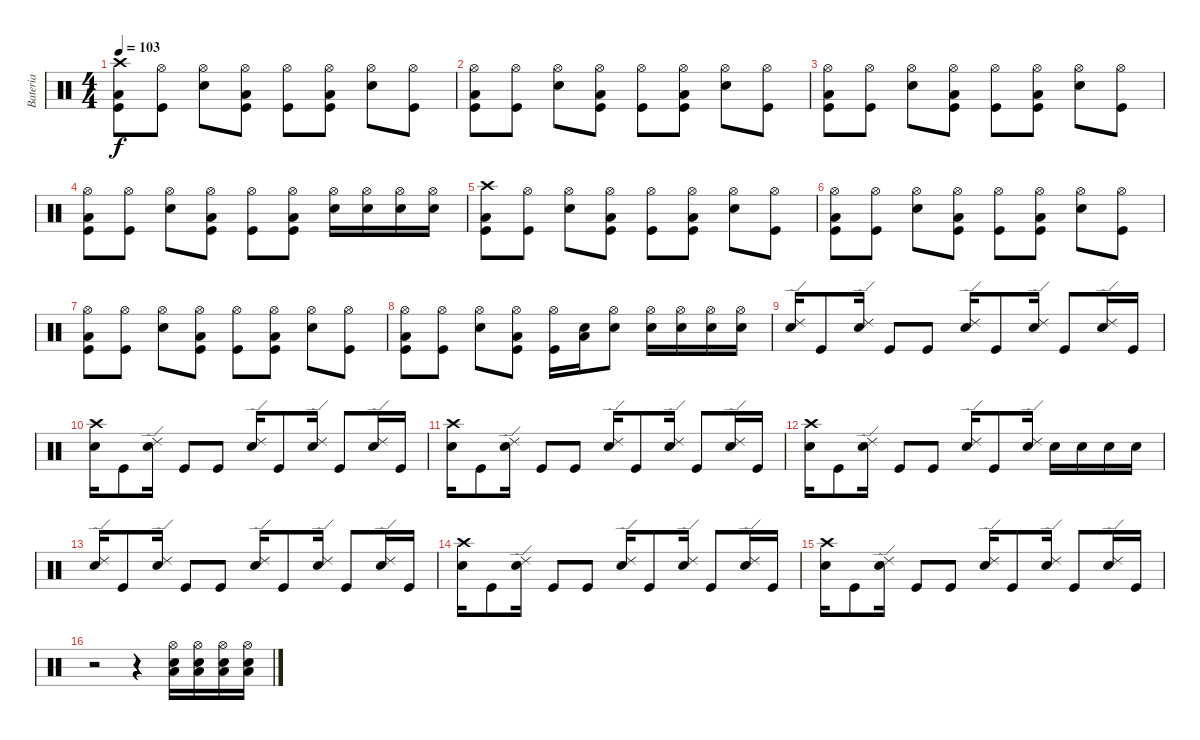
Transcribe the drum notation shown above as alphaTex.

\track ("Bateria" "Bateria") {instrument percussion}
\staff {score}
\articulation defaults
\ts (4 4)
\tempo 103
\clef neutral
\ks c
("Crash high (hit)" "Kick (hit)" "Low Tom (hit)").8{dy f} ("Hi-Hat (open)" "Kick (hit)").8 ("Hi-Hat (open)" "Snare (hit) 2").8 ("Hi-Hat (open)" "Kick (hit)" "Low Tom (hit)").8 ("Hi-Hat (open)" "Kick (hit)").8 ("Hi-Hat (open)" "Kick (hit)" "Low Tom (hit)").8 ("Hi-Hat (open)" "Snare (hit) 2").8 ("Hi-Hat (open)" "Kick (hit)").8 |
("Hi-Hat (open)" "Kick (hit)" "Low Tom (hit)").8 ("Hi-Hat (open)" "Kick (hit)").8 ("Hi-Hat (open)" "Snare (hit) 2").8 ("Hi-Hat (open)" "Kick (hit)" "Low Tom (hit)").8 ("Hi-Hat (open)" "Kick (hit)").8 ("Hi-Hat (open)" "Kick (hit)" "Low Tom (hit)").8 ("Hi-Hat (open)" "Snare (hit) 2").8 ("Hi-Hat (open)" "Kick (hit)").8 |
("Hi-Hat (open)" "Kick (hit)" "Low Tom (hit)").8 ("Hi-Hat (open)" "Kick (hit)").8 ("Hi-Hat (open)" "Snare (hit) 2").8 ("Hi-Hat (open)" "Kick (hit)" "Low Tom (hit)").8 ("Hi-Hat (open)" "Kick (hit)").8 ("Hi-Hat (open)" "Kick (hit)" "Low Tom (hit)").8 ("Hi-Hat (open)" "Snare (hit) 2").8 ("Hi-Hat (open)" "Kick (hit)").8 |
("Hi-Hat (open)" "Kick (hit)" "Low Tom (hit)").8 ("Hi-Hat (open)" "Kick (hit)").8 ("Hi-Hat (open)" "Snare (hit) 2").8 ("Hi-Hat (open)" "Kick (hit)" "Low Tom (hit)").8 ("Hi-Hat (open)" "Kick (hit)").8 ("Hi-Hat (open)" "Kick (hit)" "Low Tom (hit)").8 ("Hi-Hat (open)" "Snare (hit) 2").16 ("Hi-Hat (open)" "Snare (hit) 2").16 ("Hi-Hat (open)" "Snare (hit) 2").16 ("Hi-Hat (open)" "Snare (hit) 2").16 |
("Crash high (hit)" "Kick (hit)" "Low Tom (hit)").8 ("Hi-Hat (open)" "Kick (hit)").8 ("Hi-Hat (open)" "Snare (hit) 2").8 ("Hi-Hat (open)" "Kick (hit)" "Low Tom (hit)").8 ("Hi-Hat (open)" "Kick (hit)").8 ("Hi-Hat (open)" "Kick (hit)" "Low Tom (hit)").8 ("Hi-Hat (open)" "Snare (hit) 2").8 ("Hi-Hat (open)" "Kick (hit)").8 |
("Hi-Hat (open)" "Kick (hit)" "Low Tom (hit)").8 ("Hi-Hat (open)" "Kick (hit)").8 ("Hi-Hat (open)" "Snare (hit) 2").8 ("Hi-Hat (open)" "Kick (hit)" "Low Tom (hit)").8 ("Hi-Hat (open)" "Kick (hit)").8 ("Hi-Hat (open)" "Kick (hit)" "Low Tom (hit)").8 ("Hi-Hat (open)" "Snare (hit) 2").8 ("Hi-Hat (open)" "Kick (hit)").8 |
("Hi-Hat (open)" "Kick (hit)" "Low Tom (hit)").8 ("Hi-Hat (open)" "Kick (hit)").8 ("Hi-Hat (open)" "Snare (hit) 2").8 ("Hi-Hat (open)" "Kick (hit)" "Low Tom (hit)").8 ("Hi-Hat (open)" "Kick (hit)").8 ("Hi-Hat (open)" "Kick (hit)" "Low Tom (hit)").8 ("Hi-Hat (open)" "Snare (hit) 2").8 ("Hi-Hat (open)" "Kick (hit)").8 |
("Hi-Hat (open)" "Kick (hit)" "Low Tom (hit)").8 ("Hi-Hat (open)" "Kick (hit)").8 ("Hi-Hat (open)" "Snare (hit) 2").8 ("Hi-Hat (open)" "Kick (hit)" "Low Tom (hit)").8 ("Hi-Hat (open)" "Kick (hit)").16 ("Snare (hit) 2" "Low Tom (hit)").16 ("Hi-Hat (open)" "Snare (hit) 2").8 ("Hi-Hat (open)" "Snare (hit) 2").16 ("Hi-Hat (open)" "Snare (hit) 2").16 ("Hi-Hat (open)" "Snare (hit) 2").16 ("Hi-Hat (open)" "Snare (hit) 2").16 |
("Ride (edge) 2" "Snare (hit) 2").16 "Kick (hit)".8 ("Ride (edge) 2" "Snare (hit) 2").16 "Kick (hit)".8 "Kick (hit)".8 ("Ride (edge) 2" "Snare (hit) 2").16 "Kick (hit)".8 ("Ride (edge) 2" "Snare (hit) 2").16 "Kick (hit)".8 ("Ride (edge) 2" "Snare (hit) 2").16 "Kick (hit)".16 |
("Crash high (hit)" "Snare (hit) 2").16 "Kick (hit)".8 ("Ride (edge) 2" "Snare (hit) 2").16 "Kick (hit)".8 "Kick (hit)".8 ("Ride (edge) 2" "Snare (hit) 2").16 "Kick (hit)".8 ("Ride (edge) 2" "Snare (hit) 2").16 "Kick (hit)".8 ("Ride (edge) 2" "Snare (hit) 2").16 "Kick (hit)".16 |
("Crash high (hit)" "Snare (hit) 2").16 "Kick (hit)".8 ("Ride (edge) 2" "Snare (hit) 2").16 "Kick (hit)".8 "Kick (hit)".8 ("Ride (edge) 2" "Snare (hit) 2").16 "Kick (hit)".8 ("Ride (edge) 2" "Snare (hit) 2").16 "Kick (hit)".8 ("Ride (edge) 2" "Snare (hit) 2").16 "Kick (hit)".16 |
("Crash high (hit)" "Snare (hit) 2").16 "Kick (hit)".8 ("Ride (edge) 2" "Snare (hit) 2").16 "Kick (hit)".8 "Kick (hit)".8 ("Ride (edge) 2" "Snare (hit) 2").16 "Kick (hit)".8 ("Ride (edge) 2" "Snare (hit) 2").16 "Snare (hit) 2".16 "Snare (hit) 2".16 "Snare (hit) 2".16 "Snare (hit) 2".16 |
("Ride (edge) 2" "Snare (hit) 2").16 "Kick (hit)".8 ("Ride (edge) 2" "Snare (hit) 2").16 "Kick (hit)".8 "Kick (hit)".8 ("Ride (edge) 2" "Snare (hit) 2").16 "Kick (hit)".8 ("Ride (edge) 2" "Snare (hit) 2").16 "Kick (hit)".8 ("Ride (edge) 2" "Snare (hit) 2").16 "Kick (hit)".16 |
("Crash high (hit)" "Snare (hit) 2").16 "Kick (hit)".8 ("Ride (edge) 2" "Snare (hit) 2").16 "Kick (hit)".8 "Kick (hit)".8 ("Ride (edge) 2" "Snare (hit) 2").16 "Kick (hit)".8 ("Ride (edge) 2" "Snare (hit) 2").16 "Kick (hit)".8 ("Ride (edge) 2" "Snare (hit) 2").16 "Kick (hit)".16 |
("Crash high (hit)" "Snare (hit) 2").16 "Kick (hit)".8 ("Ride (edge) 2" "Snare (hit) 2").16 "Kick (hit)".8 "Kick (hit)".8 ("Ride (edge) 2" "Snare (hit) 2").16 "Kick (hit)".8 ("Ride (edge) 2" "Snare (hit) 2").16 "Kick (hit)".8 ("Ride (edge) 2" "Snare (hit) 2").16 "Kick (hit)".16 |
r.2 r.4 ("Hi-Hat (open)" "Snare (hit) 2" "Low Tom (hit)").16 ("Hi-Hat (open)" "Snare (hit) 2" "Low Tom (hit)").16 ("Hi-Hat (open)" "Snare (hit) 2" "Low Tom (hit)").16 ("Hi-Hat (open)" "Snare (hit) 2" "Low Tom (hit)").16
